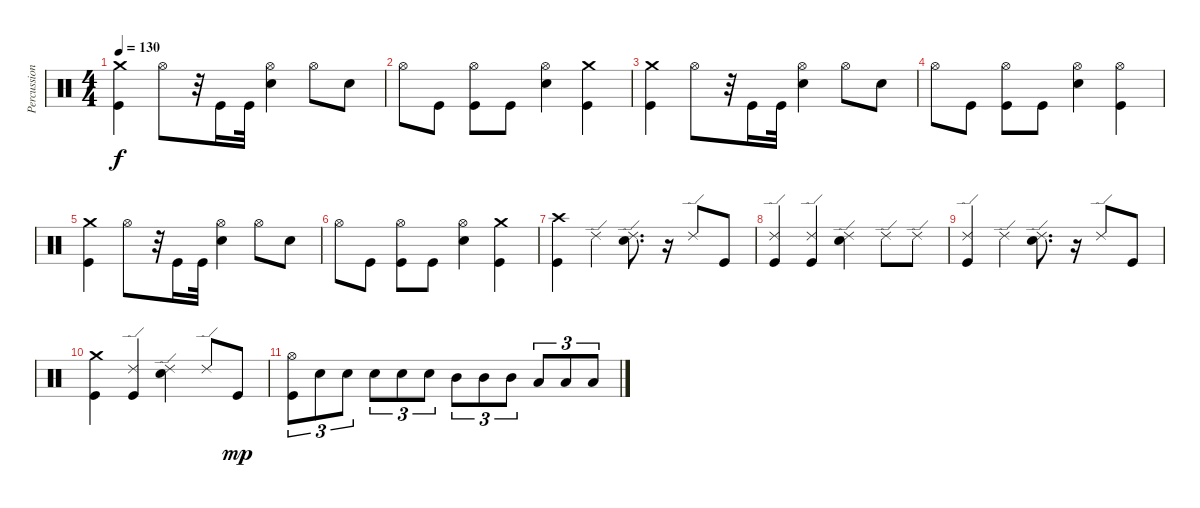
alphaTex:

\track ("Percussion" "Percussion") {instrument percussion}
\staff {score}
\articulation defaults
\ts (4 4)
\tempo 130
\clef neutral
\ks c
("Crash medium (hit)" "Kick (hit)").4{dy f} "Hi-Hat (open)".8 r.32 "Kick (hit)".16 "Kick (hit)".32 ("Hi-Hat (open)" "Snare (hit) 2").4 "Hi-Hat (open)".8 "Snare (hit) 2".8 |
"Hi-Hat (open)".8 "Kick (hit)".8 ("Hi-Hat (open)" "Kick (hit)").8 "Kick (hit)".8 ("Hi-Hat (open)" "Snare (hit) 2").4 ("Crash medium (hit)" "Kick (hit)").4 |
("Crash medium (hit)" "Kick (hit)").4 "Hi-Hat (open)".8 r.32 "Kick (hit)".16 "Kick (hit)".32 ("Hi-Hat (open)" "Snare (hit) 2").4 "Hi-Hat (open)".8 "Snare (hit) 2".8 |
"Hi-Hat (open)".8 "Kick (hit)".8 ("Hi-Hat (open)" "Kick (hit)").8 "Kick (hit)".8 ("Hi-Hat (open)" "Snare (hit) 2").4 ("Hi-Hat (open)" "Kick (hit)").4 |
("Crash medium (hit)" "Kick (hit)").4 "Hi-Hat (open)".8 r.32 "Kick (hit)".16 "Kick (hit)".32 ("Hi-Hat (open)" "Snare (hit) 2").4 "Hi-Hat (open)".8 "Snare (hit) 2".8 |
"Hi-Hat (open)".8 "Kick (hit)".8 ("Hi-Hat (open)" "Kick (hit)").8 "Kick (hit)".8 ("Hi-Hat (open)" "Snare (hit) 2").4 ("Crash medium (hit)" "Kick (hit)").4 |
("Crash high (hit)" "Kick (hit)").4 "Ride (edge) 2".4 ("Ride (edge) 2" "Electric Snare (hit)").8{d} r.16 "Ride (edge) 2".8 "Kick (hit)".8 |
("Ride (edge) 2" "Kick (hit)").4 ("Ride (edge) 2" "Kick (hit)").4 ("Ride (edge) 2" "Electric Snare (hit)").4 "Ride (edge) 2".8 "Ride (edge) 2".8 |
("Ride (edge) 2" "Kick (hit)").4 "Ride (edge) 2".4 ("Ride (edge) 2" "Electric Snare (hit)").8{d} r.16 "Ride (edge) 2".8 "Kick (hit)".8 |
("Crash medium (hit)" "Kick (hit)").4 ("Ride (edge) 2" "Kick (hit)").4 ("Ride (edge) 2" "Electric Snare (hit)").4 "Ride (edge) 2".8 "Kick (hit)".8{dy mp} |
("Hi-Hat (open)" "Kick (hit)").8{tu (3 2)} "Electric Snare (hit)".8{tu (3 2)} "Electric Snare (hit)".8{tu (3 2)} "Electric Snare (hit)".8{tu (3 2)} "Electric Snare (hit)".8{tu (3 2)} "Electric Snare (hit)".8{tu (3 2)} "Mid Tom (hit)".8{tu (3 2)} "Mid Tom (hit)".8{tu (3 2)} "Mid Tom (hit)".8{tu (3 2)} "Low Tom (hit)".8{tu (3 2)} "Low Tom (hit)".8{tu (3 2)} "Low Tom (hit)".8{tu (3 2)}
